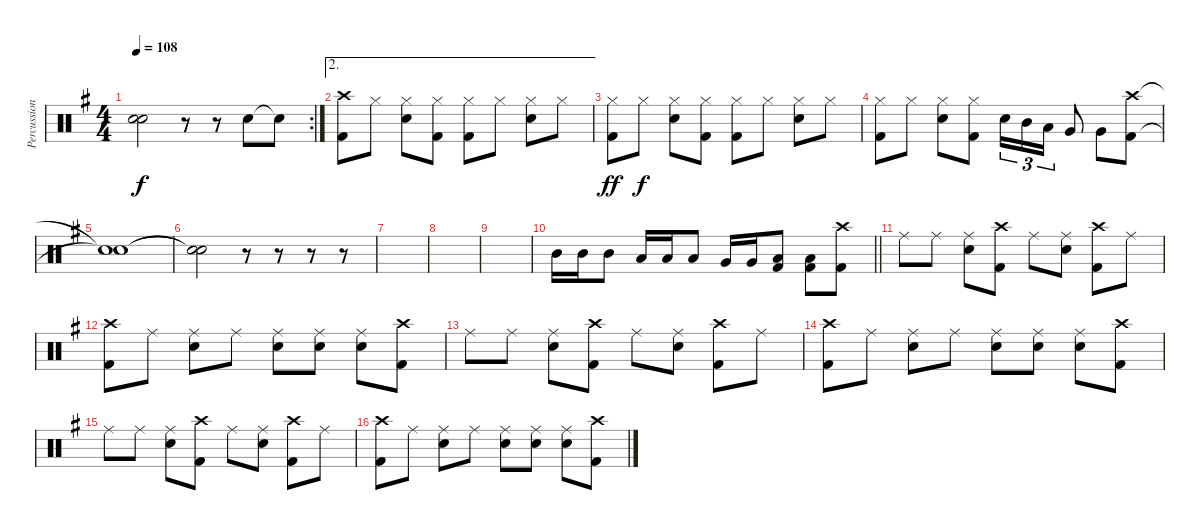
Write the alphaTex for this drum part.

\track ("Percussion" "Percussion") {instrument percussion}
\staff {score}
\articulation defaults
\rc 2
\ts (4 4)
\tempo 108
\clef neutral
\ks g
("Snare (hit)"{t} "Snare (hit)"{t}).2{dy f} r.8 r.8 "Snare (hit) 2".8 "Snare (hit)"{t}.8 |
\ae 2
("Crash high (hit)" "Kick (hit) 2").8 "Hi-Hat (closed)".8 ("Hi-Hat (closed)" "Snare (hit) 2").8 ("Hi-Hat (closed)" "Kick (hit) 2").8 ("Hi-Hat (closed)" "Kick (hit) 2").8 "Hi-Hat (closed)".8 ("Hi-Hat (closed)" "Snare (hit) 2").8 "Hi-Hat (closed)".8 |
("Hi-Hat (closed)" "Kick (hit) 2").8{dy ff} "Hi-Hat (closed)".8{dy f} ("Hi-Hat (closed)" "Snare (hit) 2").8 ("Hi-Hat (closed)" "Kick (hit) 2").8 ("Hi-Hat (closed)" "Kick (hit) 2").8 "Hi-Hat (closed)".8 ("Hi-Hat (closed)" "Snare (hit) 2").8 "Hi-Hat (closed)".8 |
("Hi-Hat (closed)" "Kick (hit) 2").8 "Hi-Hat (closed)".8 ("Hi-Hat (closed)" "Snare (hit) 2").8 ("Hi-Hat (closed)" "Kick (hit) 2").8 "Snare (hit) 2".16{tu (3 2)} "Mid Tom (hit)".16{tu (3 2)} "Low Tom (hit)".16{tu (3 2)} "Very Low Tom (hit)".8 "Very Low Tom (hit)".8 ("Crash high (hit)" "Kick (hit) 2").8 |
("Snare (hit)"{t} "Snare (hit)"{t}).1 |
("Snare (hit)"{t} "Snare (hit)"{t}).2 r.8 r.8 r.8 r.8 |
|
|
|
\barLineRight lightlight "Mid Tom (hit)".16 "Mid Tom (hit)".16 "Mid Tom (hit)".8 "Low Tom (hit)".16 "Low Tom (hit)".16 "Low Tom (hit)".8 "Very Low Tom (hit)".16 "Very Low Tom (hit)".16
("Low Floor Tom (hit)" "Kick (hit) 2").8 ("Low Floor Tom (hit)" "Kick (hit) 2").8 ("Crash high (hit)" "Kick (hit) 2").8 |
"Ride (middle)".8 "Ride (middle)".8 ("Ride (middle)" "Snare (hit) 2").8 ("Crash high (hit)" "Kick (hit) 2").8 "Ride (middle)".8 ("Ride (middle)" "Snare (hit) 2").8 ("Crash high (hit)" "Kick (hit) 2").8 "Ride (middle)".8 |
("Crash high (hit)" "Kick (hit) 2").8 "Ride (middle)".8 ("Ride (middle)" "Snare (hit) 2").8 "Ride (middle)".8 ("Ride (middle)" "Snare (hit) 2").8 ("Ride (middle)" "Snare (hit) 2").8 ("Ride (middle)" "Snare (hit) 2").8 ("Crash high (hit)" "Kick (hit) 2").8 |
"Ride (middle)".8 "Ride (middle)".8 ("Ride (middle)" "Snare (hit) 2").8 ("Crash high (hit)" "Kick (hit) 2").8 "Ride (middle)".8 ("Ride (middle)" "Snare (hit) 2").8 ("Crash high (hit)" "Kick (hit) 2").8 "Ride (middle)".8 |
("Crash high (hit)" "Kick (hit) 2").8 "Ride (middle)".8 ("Ride (middle)" "Snare (hit) 2").8 "Ride (middle)".8 ("Ride (middle)" "Snare (hit) 2").8 ("Ride (middle)" "Snare (hit) 2").8 ("Ride (middle)" "Snare (hit) 2").8 ("Crash high (hit)" "Kick (hit) 2").8 |
"Ride (middle)".8 "Ride (middle)".8 ("Ride (middle)" "Snare (hit) 2").8 ("Crash high (hit)" "Kick (hit) 2").8 "Ride (middle)".8 ("Ride (middle)" "Snare (hit) 2").8 ("Crash high (hit)" "Kick (hit) 2").8 "Ride (middle)".8 |
("Crash high (hit)" "Kick (hit) 2").8 "Ride (middle)".8 ("Ride (middle)" "Snare (hit) 2").8 "Ride (middle)".8 ("Ride (middle)" "Snare (hit) 2").8 ("Ride (middle)" "Snare (hit) 2").8 ("Ride (middle)" "Snare (hit) 2").8 ("Crash high (hit)" "Kick (hit) 2").8
